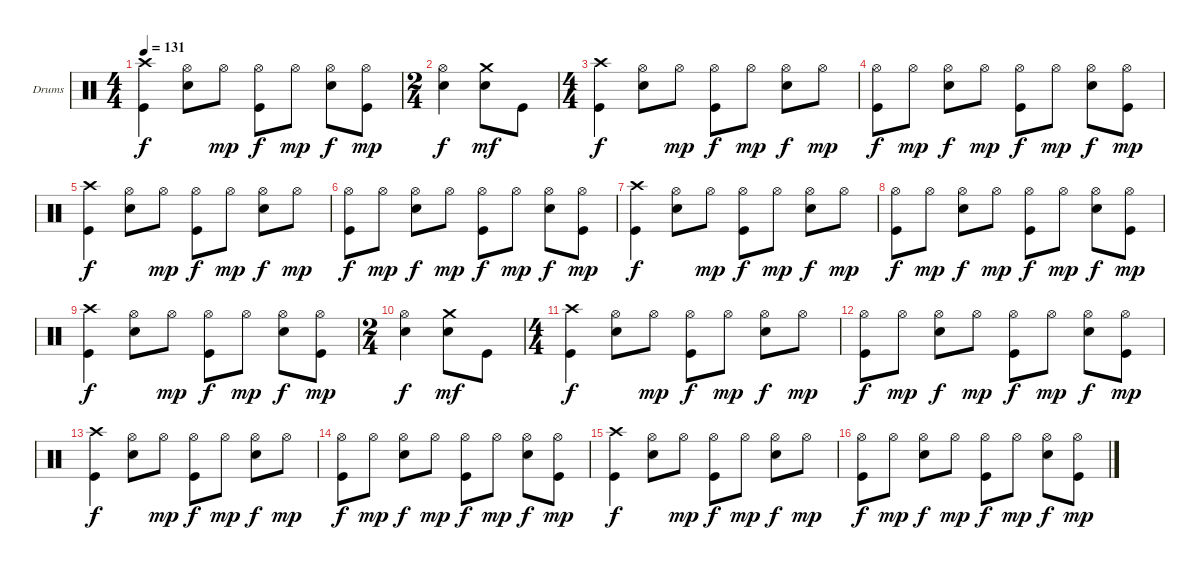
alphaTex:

\bracketExtendMode groupsimilarinstruments
\firstSystemTrackNameOrientation horizontal
\otherSystemsTrackNameOrientation horizontal
\track ("Drumkit" "Drums") {instrument percussion}
\staff {score}
\articulation defaults
\ts (4 4)
\tempo 131
\clef neutral
\ks c
("Crash high (hit)" "Kick (hit)").4{dy f} ("Hi-Hat (open)" "Snare (hit) 2").8 "Hi-Hat (open)".8{dy mp} ("Hi-Hat (open)" "Kick (hit)").8{dy f} "Hi-Hat (open)".8{dy mp} ("Hi-Hat (open)" "Snare (hit) 2").8{dy f} ("Hi-Hat (open)" "Kick (hit)").8{dy mp} |
\ts (2 4)
\beaming (8 2 2)
("Hi-Hat (open)" "Snare (hit) 2").4{dy f} ("Crash medium (hit)" "Snare (hit) 2").8{dy mf} "Kick (hit)".8 |
\ts (4 4)
\beaming (8 2 2 2 2)
("Crash high (hit)" "Kick (hit)").4{dy f} ("Hi-Hat (open)" "Snare (hit) 2").8 "Hi-Hat (open)".8{dy mp} ("Hi-Hat (open)" "Kick (hit)").8{dy f} "Hi-Hat (open)".8{dy mp} ("Hi-Hat (open)" "Snare (hit) 2").8{dy f} "Hi-Hat (open)".8{dy mp} |
("Hi-Hat (open)" "Kick (hit)").8{dy f} "Hi-Hat (open)".8{dy mp} ("Hi-Hat (open)" "Snare (hit) 2").8{dy f} "Hi-Hat (open)".8{dy mp} ("Hi-Hat (open)" "Kick (hit)").8{dy f} "Hi-Hat (open)".8{dy mp} ("Hi-Hat (open)" "Snare (hit) 2").8{dy f} ("Hi-Hat (open)" "Kick (hit)").8{dy mp} |
("Crash high (hit)" "Kick (hit)").4{dy f} ("Hi-Hat (open)" "Snare (hit) 2").8 "Hi-Hat (open)".8{dy mp} ("Hi-Hat (open)" "Kick (hit)").8{dy f} "Hi-Hat (open)".8{dy mp} ("Hi-Hat (open)" "Snare (hit) 2").8{dy f} "Hi-Hat (open)".8{dy mp} |
("Hi-Hat (open)" "Kick (hit)").8{dy f} "Hi-Hat (open)".8{dy mp} ("Hi-Hat (open)" "Snare (hit) 2").8{dy f} "Hi-Hat (open)".8{dy mp} ("Hi-Hat (open)" "Kick (hit)").8{dy f} "Hi-Hat (open)".8{dy mp} ("Hi-Hat (open)" "Snare (hit) 2").8{dy f} ("Hi-Hat (open)" "Kick (hit)").8{dy mp} |
("Crash high (hit)" "Kick (hit)").4{dy f} ("Hi-Hat (open)" "Snare (hit) 2").8 "Hi-Hat (open)".8{dy mp} ("Hi-Hat (open)" "Kick (hit)").8{dy f} "Hi-Hat (open)".8{dy mp} ("Hi-Hat (open)" "Snare (hit) 2").8{dy f} "Hi-Hat (open)".8{dy mp} |
("Hi-Hat (open)" "Kick (hit)").8{dy f} "Hi-Hat (open)".8{dy mp} ("Hi-Hat (open)" "Snare (hit) 2").8{dy f} "Hi-Hat (open)".8{dy mp} ("Hi-Hat (open)" "Kick (hit)").8{dy f} "Hi-Hat (open)".8{dy mp} ("Hi-Hat (open)" "Snare (hit) 2").8{dy f} ("Hi-Hat (open)" "Kick (hit)").8{dy mp} |
("Crash high (hit)" "Kick (hit)").4{dy f} ("Hi-Hat (open)" "Snare (hit) 2").8 "Hi-Hat (open)".8{dy mp} ("Hi-Hat (open)" "Kick (hit)").8{dy f} "Hi-Hat (open)".8{dy mp} ("Hi-Hat (open)" "Snare (hit) 2").8{dy f} ("Hi-Hat (open)" "Kick (hit)").8{dy mp} |
\ts (2 4)
\beaming (8 2 2)
("Hi-Hat (open)" "Snare (hit) 2").4{dy f} ("Crash medium (hit)" "Snare (hit) 2").8{dy mf} "Kick (hit)".8 |
\ts (4 4)
\beaming (8 2 2 2 2)
("Crash high (hit)" "Kick (hit)").4{dy f} ("Hi-Hat (open)" "Snare (hit) 2").8 "Hi-Hat (open)".8{dy mp} ("Hi-Hat (open)" "Kick (hit)").8{dy f} "Hi-Hat (open)".8{dy mp} ("Hi-Hat (open)" "Snare (hit) 2").8{dy f} "Hi-Hat (open)".8{dy mp} |
("Hi-Hat (open)" "Kick (hit)").8{dy f} "Hi-Hat (open)".8{dy mp} ("Hi-Hat (open)" "Snare (hit) 2").8{dy f} "Hi-Hat (open)".8{dy mp} ("Hi-Hat (open)" "Kick (hit)").8{dy f} "Hi-Hat (open)".8{dy mp} ("Hi-Hat (open)" "Snare (hit) 2").8{dy f} ("Hi-Hat (open)" "Kick (hit)").8{dy mp} |
("Crash high (hit)" "Kick (hit)").4{dy f} ("Hi-Hat (open)" "Snare (hit) 2").8 "Hi-Hat (open)".8{dy mp} ("Hi-Hat (open)" "Kick (hit)").8{dy f} "Hi-Hat (open)".8{dy mp} ("Hi-Hat (open)" "Snare (hit) 2").8{dy f} "Hi-Hat (open)".8{dy mp} |
("Hi-Hat (open)" "Kick (hit)").8{dy f} "Hi-Hat (open)".8{dy mp} ("Hi-Hat (open)" "Snare (hit) 2").8{dy f} "Hi-Hat (open)".8{dy mp} ("Hi-Hat (open)" "Kick (hit)").8{dy f} "Hi-Hat (open)".8{dy mp} ("Hi-Hat (open)" "Snare (hit) 2").8{dy f} ("Hi-Hat (open)" "Kick (hit)").8{dy mp} |
("Crash high (hit)" "Kick (hit)").4{dy f} ("Hi-Hat (open)" "Snare (hit) 2").8 "Hi-Hat (open)".8{dy mp} ("Hi-Hat (open)" "Kick (hit)").8{dy f} "Hi-Hat (open)".8{dy mp} ("Hi-Hat (open)" "Snare (hit) 2").8{dy f} "Hi-Hat (open)".8{dy mp} |
("Hi-Hat (open)" "Kick (hit)").8{dy f} "Hi-Hat (open)".8{dy mp} ("Hi-Hat (open)" "Snare (hit) 2").8{dy f} "Hi-Hat (open)".8{dy mp} ("Hi-Hat (open)" "Kick (hit)").8{dy f} "Hi-Hat (open)".8{dy mp} ("Hi-Hat (open)" "Snare (hit) 2").8{dy f} ("Hi-Hat (open)" "Kick (hit)").8{dy mp}
